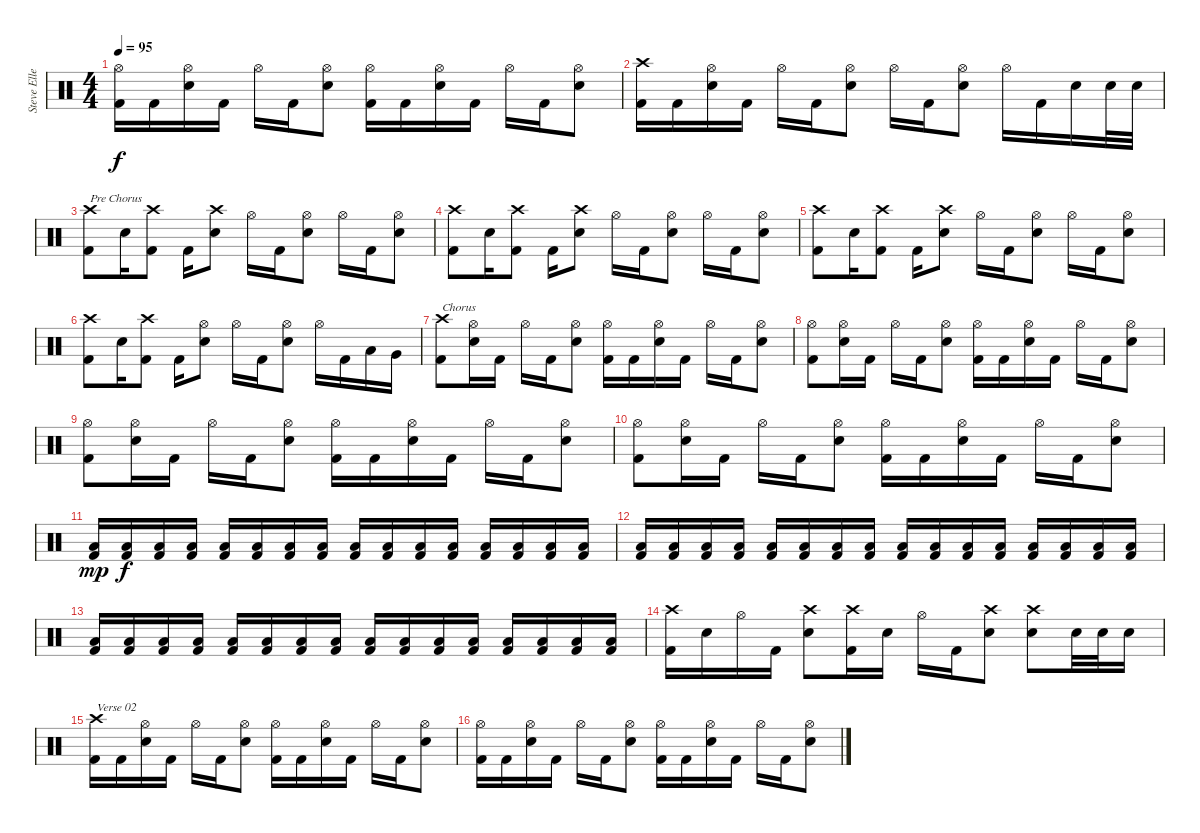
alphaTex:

\track ("Steve Ellett" "Steve Elle") {instrument percussion}
\staff {score}
\articulation defaults
\ts (4 4)
\tempo 95
\clef neutral
\ks c
("Hi-Hat (open)" "Kick (hit) 2").16{dy f} "Kick (hit) 2".16 ("Hi-Hat (open)" "Snare (hit) 2").16 "Kick (hit) 2".16 "Hi-Hat (open)".16 "Kick (hit) 2".16 ("Hi-Hat (open)" "Snare (hit) 2").8 ("Hi-Hat (open)" "Kick (hit) 2").16 "Kick (hit) 2".16 ("Hi-Hat (open)" "Snare (hit) 2").16 "Kick (hit) 2".16 "Hi-Hat (open)".16 "Kick (hit) 2".16 ("Hi-Hat (open)" "Snare (hit) 2").8 |
("Crash high (hit)" "Kick (hit) 2").16 "Kick (hit) 2".16 ("Hi-Hat (open)" "Snare (hit) 2").16 "Kick (hit) 2".16 "Hi-Hat (open)".16 "Kick (hit) 2".16 ("Hi-Hat (open)" "Snare (hit) 2").8 "Hi-Hat (open)".16 "Kick (hit) 2".16 ("Hi-Hat (open)" "Snare (hit) 2").8 "Hi-Hat (open)".16 "Kick (hit) 2".16 "Snare (hit) 2".16 "Snare (hit) 2".32 "Snare (hit) 2".32 |
("Crash high (hit)" "Kick (hit) 2").8{txt "Pre Chorus"} "Snare (hit) 2".16 ("Crash high (hit)" "Kick (hit) 2").8 "Kick (hit) 2".16 ("Crash high (hit)" "Snare (hit) 2").8 "Hi-Hat (open)".16 "Kick (hit) 2".16 ("Hi-Hat (open)" "Snare (hit) 2").8 "Hi-Hat (open)".16 "Kick (hit) 2".16 ("Hi-Hat (open)" "Snare (hit) 2").8 |
("Crash high (hit)" "Kick (hit) 2").8 "Snare (hit) 2".16 ("Crash high (hit)" "Kick (hit) 2").8 "Kick (hit) 2".16 ("Crash high (hit)" "Snare (hit) 2").8 "Hi-Hat (open)".16 "Kick (hit) 2".16 ("Hi-Hat (open)" "Snare (hit) 2").8 "Hi-Hat (open)".16 "Kick (hit) 2".16 ("Hi-Hat (open)" "Snare (hit) 2").8 |
("Crash high (hit)" "Kick (hit) 2").8 "Snare (hit) 2".16 ("Crash high (hit)" "Kick (hit) 2").8 "Kick (hit) 2".16 ("Crash high (hit)" "Snare (hit) 2").8 "Hi-Hat (open)".16 "Kick (hit) 2".16 ("Hi-Hat (open)" "Snare (hit) 2").8 "Hi-Hat (open)".16 "Kick (hit) 2".16 ("Hi-Hat (open)" "Snare (hit) 2").8 |
("Crash high (hit)" "Kick (hit) 2").8 "Snare (hit) 2".16 ("Crash high (hit)" "Kick (hit) 2").8 "Kick (hit) 2".16 ("Hi-Hat (open)" "Snare (hit) 2").8 "Hi-Hat (open)".16 "Kick (hit) 2".16 ("Hi-Hat (open)" "Snare (hit) 2").8 "Hi-Hat (open)".16 "Kick (hit) 2".16 "Low Tom (hit)".16 "Very Low Tom (hit)".16 |
("Crash high (hit)" "Kick (hit) 2").8{txt "Chorus"} ("Hi-Hat (open)" "Snare (hit) 2").16 "Kick (hit) 2".16 "Hi-Hat (open)".16 "Kick (hit) 2".16 ("Hi-Hat (open)" "Snare (hit) 2").8 ("Hi-Hat (open)" "Kick (hit) 2").16 "Kick (hit) 2".16 ("Hi-Hat (open)" "Snare (hit) 2").16 "Kick (hit) 2".16 "Hi-Hat (open)".16 "Kick (hit) 2".16 ("Hi-Hat (open)" "Snare (hit) 2").8 |
("Hi-Hat (open)" "Kick (hit) 2").8 ("Hi-Hat (open)" "Snare (hit) 2").16 "Kick (hit) 2".16 "Hi-Hat (open)".16 "Kick (hit) 2".16 ("Hi-Hat (open)" "Snare (hit) 2").8 ("Hi-Hat (open)" "Kick (hit) 2").16 "Kick (hit) 2".16 ("Hi-Hat (open)" "Snare (hit) 2").16 "Kick (hit) 2".16 "Hi-Hat (open)".16 "Kick (hit) 2".16 ("Hi-Hat (open)" "Snare (hit) 2").8 |
("Hi-Hat (open)" "Kick (hit) 2").8 ("Hi-Hat (open)" "Snare (hit) 2").16 "Kick (hit) 2".16 "Hi-Hat (open)".16 "Kick (hit) 2".16 ("Hi-Hat (open)" "Snare (hit) 2").8 ("Hi-Hat (open)" "Kick (hit) 2").16 "Kick (hit) 2".16 ("Hi-Hat (open)" "Snare (hit) 2").16 "Kick (hit) 2".16 "Hi-Hat (open)".16 "Kick (hit) 2".16 ("Hi-Hat (open)" "Snare (hit) 2").8 |
("Hi-Hat (open)" "Kick (hit) 2").8 ("Hi-Hat (open)" "Snare (hit) 2").16 "Kick (hit) 2".16 "Hi-Hat (open)".16 "Kick (hit) 2".16 ("Hi-Hat (open)" "Snare (hit) 2").8 ("Hi-Hat (open)" "Kick (hit) 2").16 "Kick (hit) 2".16 ("Hi-Hat (open)" "Snare (hit) 2").16 "Kick (hit) 2".16 "Hi-Hat (open)".16 "Kick (hit) 2".16 ("Hi-Hat (open)" "Snare (hit) 2").8 |
("Low Floor Tom (hit)" "Kick (hit) 2").16{dy mp} ("Low Floor Tom (hit)" "Kick (hit) 2").16{dy f} ("Low Floor Tom (hit)" "Kick (hit) 2").16 ("Low Floor Tom (hit)" "Kick (hit) 2").16 ("Low Floor Tom (hit)" "Kick (hit) 2").16 ("Low Floor Tom (hit)" "Kick (hit) 2").16 ("Low Floor Tom (hit)" "Kick (hit) 2").16 ("Low Floor Tom (hit)" "Kick (hit) 2").16 ("Low Floor Tom (hit)" "Kick (hit) 2").16 ("Low Floor Tom (hit)" "Kick (hit) 2").16 ("Low Floor Tom (hit)" "Kick (hit) 2").16 ("Low Floor Tom (hit)" "Kick (hit) 2").16 ("Low Floor Tom (hit)" "Kick (hit) 2").16 ("Low Floor Tom (hit)" "Kick (hit) 2").16 ("Low Floor Tom (hit)" "Kick (hit) 2").16 ("Low Floor Tom (hit)" "Kick (hit) 2").16 |
("Low Floor Tom (hit)" "Kick (hit) 2").16 ("Low Floor Tom (hit)" "Kick (hit) 2").16 ("Low Floor Tom (hit)" "Kick (hit) 2").16 ("Low Floor Tom (hit)" "Kick (hit) 2").16 ("Low Floor Tom (hit)" "Kick (hit) 2").16 ("Low Floor Tom (hit)" "Kick (hit) 2").16 ("Low Floor Tom (hit)" "Kick (hit) 2").16 ("Low Floor Tom (hit)" "Kick (hit) 2").16 ("Low Floor Tom (hit)" "Kick (hit) 2").16 ("Low Floor Tom (hit)" "Kick (hit) 2").16 ("Low Floor Tom (hit)" "Kick (hit) 2").16 ("Low Floor Tom (hit)" "Kick (hit) 2").16 ("Low Floor Tom (hit)" "Kick (hit) 2").16 ("Low Floor Tom (hit)" "Kick (hit) 2").16 ("Low Floor Tom (hit)" "Kick (hit) 2").16 ("Low Floor Tom (hit)" "Kick (hit) 2").16 |
("Low Floor Tom (hit)" "Kick (hit) 2").16 ("Low Floor Tom (hit)" "Kick (hit) 2").16 ("Low Floor Tom (hit)" "Kick (hit) 2").16 ("Low Floor Tom (hit)" "Kick (hit) 2").16 ("Low Floor Tom (hit)" "Kick (hit) 2").16 ("Low Floor Tom (hit)" "Kick (hit) 2").16 ("Low Floor Tom (hit)" "Kick (hit) 2").16 ("Low Floor Tom (hit)" "Kick (hit) 2").16 ("Low Floor Tom (hit)" "Kick (hit) 2").16 ("Low Floor Tom (hit)" "Kick (hit) 2").16 ("Low Floor Tom (hit)" "Kick (hit) 2").16 ("Low Floor Tom (hit)" "Kick (hit) 2").16 ("Low Floor Tom (hit)" "Kick (hit) 2").16 ("Low Floor Tom (hit)" "Kick (hit) 2").16 ("Low Floor Tom (hit)" "Kick (hit) 2").16 ("Low Floor Tom (hit)" "Kick (hit) 2").16 |
("Crash high (hit)" "Kick (hit) 2").16 "Snare (hit) 2".16 "Hi-Hat (open)".16 "Kick (hit) 2".16 ("Crash high (hit)" "Snare (hit) 2").8 ("Crash high (hit)" "Kick (hit) 2").16 "Snare (hit) 2".16 "Hi-Hat (open)".16 "Kick (hit) 2".16 ("Crash high (hit)" "Snare (hit) 2").8 ("Crash high (hit)" "Snare (hit) 2").8 "Snare (hit) 2".32 "Snare (hit) 2".32 "Snare (hit) 2".16 |
("Crash high (hit)" "Kick (hit) 2").16{txt "Verse 02"} "Kick (hit) 2".16 ("Hi-Hat (open)" "Snare (hit) 2").16 "Kick (hit) 2".16 "Hi-Hat (open)".16 "Kick (hit) 2".16 ("Hi-Hat (open)" "Snare (hit) 2").8 ("Hi-Hat (open)" "Kick (hit) 2").16 "Kick (hit) 2".16 ("Hi-Hat (open)" "Snare (hit) 2").16 "Kick (hit) 2".16 "Hi-Hat (open)".16 "Kick (hit) 2".16 ("Hi-Hat (open)" "Snare (hit) 2").8 |
("Hi-Hat (open)" "Kick (hit) 2").16 "Kick (hit) 2".16 ("Hi-Hat (open)" "Snare (hit) 2").16 "Kick (hit) 2".16 "Hi-Hat (open)".16 "Kick (hit) 2".16 ("Hi-Hat (open)" "Snare (hit) 2").8 ("Hi-Hat (open)" "Kick (hit) 2").16 "Kick (hit) 2".16 ("Hi-Hat (open)" "Snare (hit) 2").16 "Kick (hit) 2".16 "Hi-Hat (open)".16 "Kick (hit) 2".16 ("Hi-Hat (open)" "Snare (hit) 2").8
